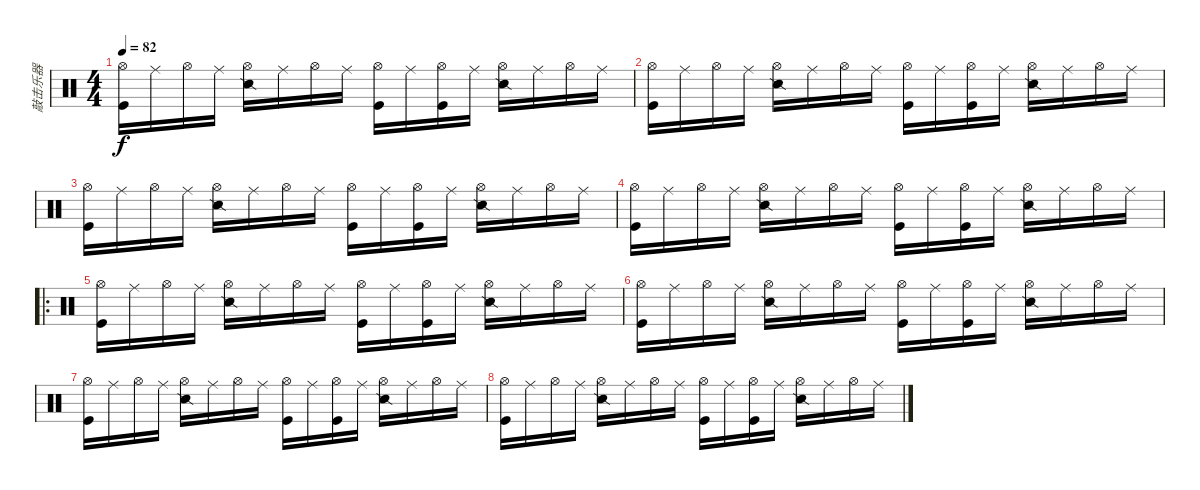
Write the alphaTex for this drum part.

\track ("敲击乐器" "敲击乐器") {instrument percussion}
\staff {score}
\articulation defaults
\ts (4 4)
\tempo 82
\clef neutral
\ks c
("Hi-Hat (open)" "Kick (hit)").16{dy f} "Ride (middle)".16 "Hi-Hat (open)".16 "Ride (middle)".16 ("Hi-Hat (open)" "Snare (side stick) 2").16 "Ride (middle)".16 "Hi-Hat (open)".16 "Ride (middle)".16 ("Hi-Hat (open)" "Kick (hit)").16 "Ride (middle)".16 ("Hi-Hat (open)" "Kick (hit)").16 "Ride (middle)".16 ("Hi-Hat (open)" "Snare (side stick) 2").16 "Ride (middle)".16 "Hi-Hat (open)".16 "Ride (middle)".16 |
("Hi-Hat (open)" "Kick (hit)").16 "Ride (middle)".16 "Hi-Hat (open)".16 "Ride (middle)".16 ("Hi-Hat (open)" "Snare (side stick) 2").16 "Ride (middle)".16 "Hi-Hat (open)".16 "Ride (middle)".16 ("Hi-Hat (open)" "Kick (hit)").16 "Ride (middle)".16 ("Hi-Hat (open)" "Kick (hit)").16 "Ride (middle)".16 ("Hi-Hat (open)" "Snare (side stick) 2").16 "Ride (middle)".16 "Hi-Hat (open)".16 "Ride (middle)".16 |
("Hi-Hat (open)" "Kick (hit)").16 "Ride (middle)".16 "Hi-Hat (open)".16 "Ride (middle)".16 ("Hi-Hat (open)" "Snare (side stick) 2").16 "Ride (middle)".16 "Hi-Hat (open)".16 "Ride (middle)".16 ("Hi-Hat (open)" "Kick (hit)").16 "Ride (middle)".16 ("Hi-Hat (open)" "Kick (hit)").16 "Ride (middle)".16 ("Hi-Hat (open)" "Snare (side stick) 2").16 "Ride (middle)".16 "Hi-Hat (open)".16 "Ride (middle)".16 |
("Hi-Hat (open)" "Kick (hit)").16 "Ride (middle)".16 "Hi-Hat (open)".16 "Ride (middle)".16 ("Hi-Hat (open)" "Snare (side stick) 2").16 "Ride (middle)".16 "Hi-Hat (open)".16 "Ride (middle)".16 ("Hi-Hat (open)" "Kick (hit)").16 "Ride (middle)".16 ("Hi-Hat (open)" "Kick (hit)").16 "Ride (middle)".16 ("Hi-Hat (open)" "Snare (side stick) 2").16 "Ride (middle)".16 "Hi-Hat (open)".16 "Ride (middle)".16 |
\ro
("Hi-Hat (open)" "Kick (hit)").16 "Ride (middle)".16 "Hi-Hat (open)".16 "Ride (middle)".16 ("Hi-Hat (open)" "Snare (side stick) 2").16 "Ride (middle)".16 "Hi-Hat (open)".16 "Ride (middle)".16 ("Hi-Hat (open)" "Kick (hit)").16 "Ride (middle)".16 ("Hi-Hat (open)" "Kick (hit)").16 "Ride (middle)".16 ("Hi-Hat (open)" "Snare (side stick) 2").16 "Ride (middle)".16 "Hi-Hat (open)".16 "Ride (middle)".16 |
("Hi-Hat (open)" "Kick (hit)").16 "Ride (middle)".16 "Hi-Hat (open)".16 "Ride (middle)".16 ("Hi-Hat (open)" "Snare (side stick) 2").16 "Ride (middle)".16 "Hi-Hat (open)".16 "Ride (middle)".16 ("Hi-Hat (open)" "Kick (hit)").16 "Ride (middle)".16 ("Hi-Hat (open)" "Kick (hit)").16 "Ride (middle)".16 ("Hi-Hat (open)" "Snare (side stick) 2").16 "Ride (middle)".16 "Hi-Hat (open)".16 "Ride (middle)".16 |
("Hi-Hat (open)" "Kick (hit)").16 "Ride (middle)".16 "Hi-Hat (open)".16 "Ride (middle)".16 ("Hi-Hat (open)" "Snare (side stick) 2").16 "Ride (middle)".16 "Hi-Hat (open)".16 "Ride (middle)".16 ("Hi-Hat (open)" "Kick (hit)").16 "Ride (middle)".16 ("Hi-Hat (open)" "Kick (hit)").16 "Ride (middle)".16 ("Hi-Hat (open)" "Snare (side stick) 2").16 "Ride (middle)".16 "Hi-Hat (open)".16 "Ride (middle)".16 |
("Hi-Hat (open)" "Kick (hit)").16 "Ride (middle)".16 "Hi-Hat (open)".16 "Ride (middle)".16 ("Hi-Hat (open)" "Snare (side stick) 2").16 "Ride (middle)".16 "Hi-Hat (open)".16 "Ride (middle)".16 ("Hi-Hat (open)" "Kick (hit)").16 "Ride (middle)".16 ("Hi-Hat (open)" "Kick (hit)").16 "Ride (middle)".16 ("Hi-Hat (open)" "Snare (side stick) 2").16 "Ride (middle)".16 "Hi-Hat (open)".16 "Ride (middle)".16
